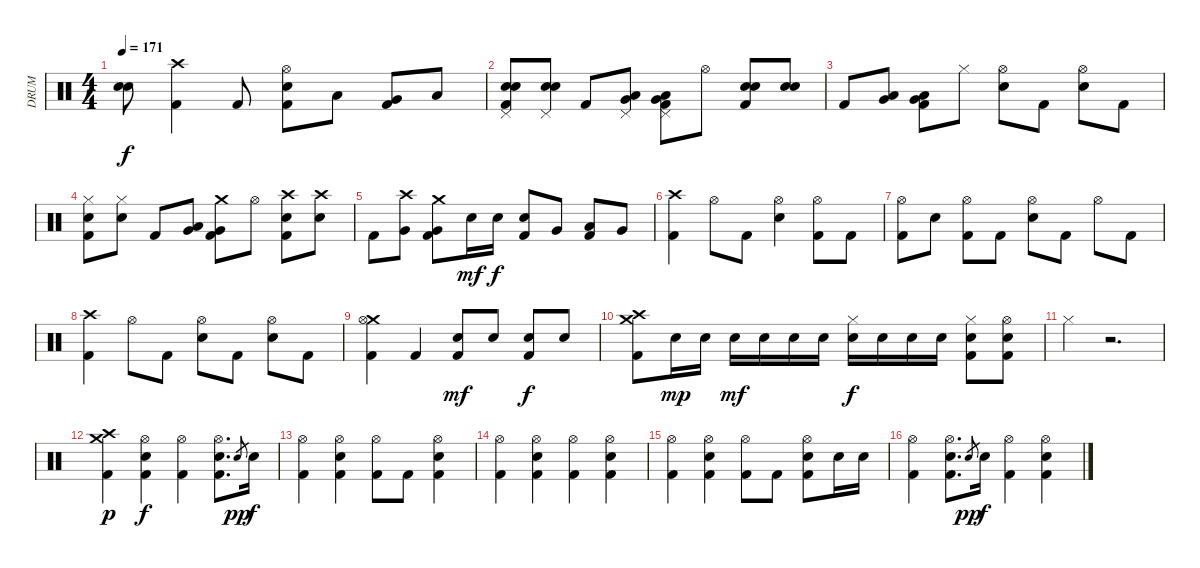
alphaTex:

\track ("DRUM" "DRUM") {instrument percussion}
\staff {score}
\articulation defaults
\ts (4 4)
\tempo 171
\clef neutral
\ks c
("Electric Snare (hit)" "Electric Snare (hit)").8{dy f} ("Crash high (hit)" "Kick (hit) 2").4 "Kick (hit) 2".8 ("Hi-Hat (open)" "Electric Snare (hit)" "Kick (hit) 2").8 "Low Tom (hit)".8 ("Very Low Tom (hit)" "Kick (hit) 2").8 "Low Floor Tom (hit)".8 |
("Pedal Hi-Hat (hit)" "Electric Snare (hit)" "Electric Snare (hit)" "Kick (hit) 2").8 ("Pedal Hi-Hat (hit)" "Electric Snare (hit)" "Electric Snare (hit)").8 "Kick (hit) 2".8 ("Pedal Hi-Hat (hit)" "Low Tom (hit)" "Very Low Tom (hit)").8 ("Pedal Hi-Hat (hit)" "Low Tom (hit)" "Very Low Tom (hit)" "Kick (hit) 2").8 "Hi-Hat (open)".8 ("Electric Snare (hit)" "Electric Snare (hit)" "Kick (hit) 2").8 ("Electric Snare (hit)" "Electric Snare (hit)").8 |
"Kick (hit) 2".8 ("Low Tom (hit)" "Very Low Tom (hit)").8 ("Low Tom (hit)" "Very Low Tom (hit)" "Kick (hit) 2").8 "Hi-Hat (closed)".8 ("Hi-Hat (open)" "Electric Snare (hit)").8 "Kick (hit) 2".8 ("Hi-Hat (open)" "Electric Snare (hit)").8 "Kick (hit) 2".8 |
("Hi-Hat (closed)" "Electric Snare (hit)" "Kick (hit) 2").8 ("Hi-Hat (closed)" "Electric Snare (hit)").8 "Kick (hit) 2".8 ("Low Tom (hit)" "Very Low Tom (hit)").8 ("Crash medium (hit)" "Very Low Tom (hit)" "Kick (hit) 2").8 "Hi-Hat (open)".8 ("Crash high (hit)" "Electric Snare (hit)" "Kick (hit) 2").8 ("Crash high (hit)" "Electric Snare (hit)").8 |
"Kick (hit) 2".8 ("Crash high (hit)" "Very Low Tom (hit)").8 ("Crash medium (hit)" "Very Low Tom (hit)" "Kick (hit) 2").8 "Electric Snare (hit)".16{dy mf} "Electric Snare (hit)".16{dy f} ("Electric Snare (hit)" "Kick (hit) 2").8 "Very Low Tom (hit)".8 ("Low Tom (hit)" "Kick (hit) 2").8 "Very Low Tom (hit)".8 |
("Crash high (hit)" "Kick (hit) 2").4 "Hi-Hat (open)".8 "Kick (hit) 2".8 ("Hi-Hat (open)" "Electric Snare (hit)").4 ("Hi-Hat (open)" "Kick (hit) 2").8 "Kick (hit) 2".8 |
("Hi-Hat (open)" "Kick (hit) 2").8 "Electric Snare (hit)".8 ("Hi-Hat (open)" "Kick (hit) 2").8 "Kick (hit) 2".8 ("Hi-Hat (open)" "Electric Snare (hit)").8 "Kick (hit) 2".8 "Hi-Hat (open)".8 "Kick (hit) 2".8 |
("Crash high (hit)" "Kick (hit) 2").4 "Hi-Hat (open)".8 "Kick (hit) 2".8 ("Hi-Hat (open)" "Electric Snare (hit)").8 "Kick (hit) 2".8 ("Hi-Hat (open)" "Electric Snare (hit)").8 "Kick (hit) 2".8 |
("Crash medium (hit)" "Hi-Hat (open)" "Kick (hit) 2").4 "Kick (hit) 2".4 ("Electric Snare (hit)" "Kick (hit) 2").8{dy mf} "Electric Snare (hit)".8 ("Electric Snare (hit)" "Kick (hit) 2").8{dy f} "Electric Snare (hit)".8 |
("Crash medium (hit)" "Crash high (hit)" "Kick (hit) 2").8 "Electric Snare (hit)".16{dy mp} "Electric Snare (hit)".16 "Electric Snare (hit)".16{dy mf} "Electric Snare (hit)".16 "Electric Snare (hit)".16 "Electric Snare (hit)".16 ("Hi-Hat (closed)" "Electric Snare (hit)").16{dy f} "Electric Snare (hit)".16 "Electric Snare (hit)".16 "Electric Snare (hit)".16 ("Hi-Hat (closed)" "Electric Snare (hit)" "Kick (hit) 2").8 ("Hi-Hat (open)" "Electric Snare (hit)" "Kick (hit) 2").8 |
"Hi-Hat (closed)".4 r.2{d} |
("Crash high (hit)" "Crash medium (hit)" "Kick (hit) 2").4{dy p} ("Hi-Hat (open)" "Electric Snare (hit)" "Kick (hit) 2").4{dy f} ("Hi-Hat (open)" "Kick (hit) 2").4 ("Hi-Hat (open)" "Electric Snare (hit)" "Kick (hit) 2").8{d} "Electric Snare (hit)".8{gr dy pp} "Electric Snare (hit)".16{dy f} |
("Hi-Hat (open)" "Kick (hit) 2").4 ("Hi-Hat (open)" "Electric Snare (hit)" "Kick (hit) 2").4 ("Hi-Hat (open)" "Kick (hit) 2").8 "Kick (hit) 2".8 ("Hi-Hat (open)" "Electric Snare (hit)" "Kick (hit) 2").4 |
("Hi-Hat (open)" "Kick (hit) 2").4 ("Hi-Hat (open)" "Electric Snare (hit)" "Kick (hit) 2").4 ("Hi-Hat (open)" "Kick (hit) 2").4 ("Hi-Hat (open)" "Electric Snare (hit)" "Kick (hit) 2").4 |
("Hi-Hat (open)" "Kick (hit) 2").4 ("Hi-Hat (open)" "Electric Snare (hit)" "Kick (hit) 2").4 ("Hi-Hat (open)" "Kick (hit) 2").8 "Kick (hit) 2".8 ("Hi-Hat (open)" "Electric Snare (hit)" "Kick (hit) 2").8 "Electric Snare (hit)".16 "Electric Snare (hit)".16 |
("Hi-Hat (open)" "Kick (hit) 2").4 ("Hi-Hat (open)" "Electric Snare (hit)" "Kick (hit) 2").8{d} "Electric Snare (hit)".8{gr dy pp} "Electric Snare (hit)".16{dy f} ("Hi-Hat (open)" "Kick (hit) 2").4 ("Hi-Hat (open)" "Electric Snare (hit)" "Kick (hit) 2").4
